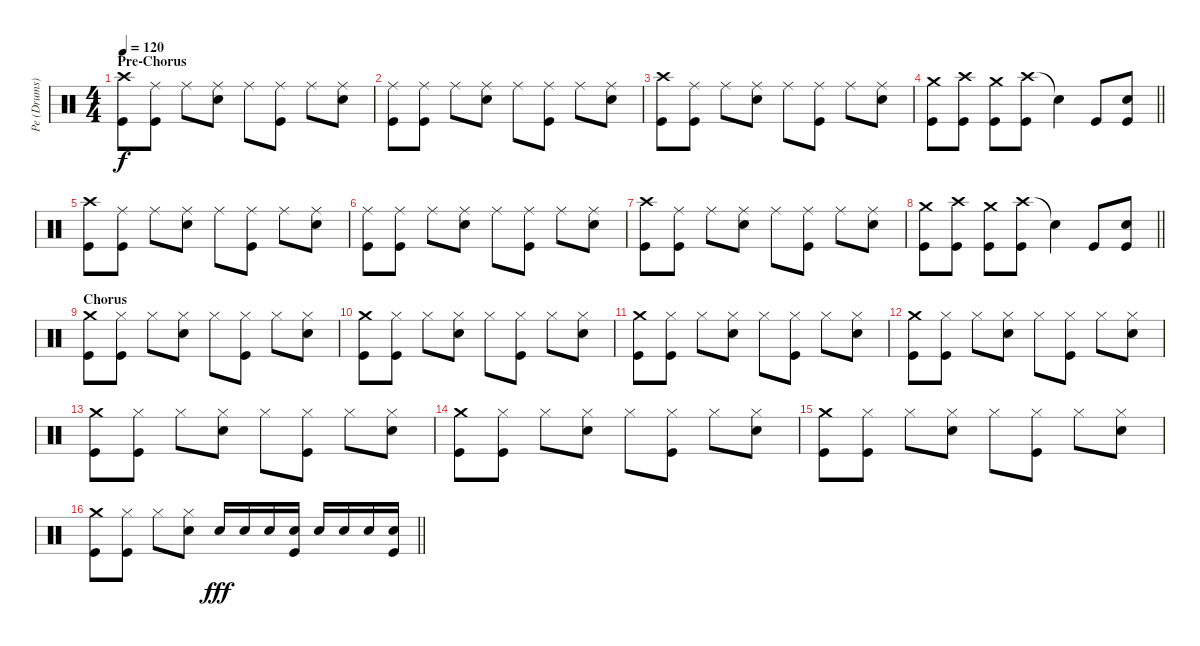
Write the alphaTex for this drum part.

\track ("Pe (Drums)" "Pe (Drums)") {instrument percussion}
\staff {score}
\articulation defaults
\ts (4 4)
\section ("" "Pre-Chorus")
\tempo 120
\clef neutral
\ks c
("Crash high (hit)" "Kick (hit)").8{dy f} ("Ride (middle)" "Kick (hit)").8 "Ride (middle)".8 ("Ride (middle)" "Electric Snare (hit)").8 "Ride (middle)".8 ("Ride (middle)" "Kick (hit)").8 "Ride (middle)".8 ("Ride (middle)" "Electric Snare (hit)").8 |
("Ride (middle)" "Kick (hit)").8 ("Ride (middle)" "Kick (hit)").8 "Ride (middle)".8 ("Ride (middle)" "Electric Snare (hit)").8 "Ride (middle)".8 ("Ride (middle)" "Kick (hit)").8 "Ride (middle)".8 ("Ride (middle)" "Electric Snare (hit)").8 |
("Crash high (hit)" "Kick (hit)").8 ("Ride (middle)" "Kick (hit)").8 "Ride (middle)".8 ("Ride (middle)" "Electric Snare (hit)").8 "Ride (middle)".8 ("Ride (middle)" "Kick (hit)").8 "Ride (middle)".8 ("Ride (middle)" "Electric Snare (hit)").8 |
\barLineRight lightlight
("Crash medium (hit)" "Kick (hit)").8 ("Crash high (hit)" "Kick (hit)").8 ("Crash medium (hit)" "Kick (hit)").8 ("Crash high (hit)" "Kick (hit)").8 "Snare (hit)"{t}.4 "Kick (hit)".8 ("Electric Snare (hit)" "Kick (hit)").8 |
("Crash high (hit)" "Kick (hit)").8 ("Ride (middle)" "Kick (hit)").8 "Ride (middle)".8 ("Ride (middle)" "Electric Snare (hit)").8 "Ride (middle)".8 ("Ride (middle)" "Kick (hit)").8 "Ride (middle)".8 ("Ride (middle)" "Electric Snare (hit)").8 |
("Ride (middle)" "Kick (hit)").8 ("Ride (middle)" "Kick (hit)").8 "Ride (middle)".8 ("Ride (middle)" "Electric Snare (hit)").8 "Ride (middle)".8 ("Ride (middle)" "Kick (hit)").8 "Ride (middle)".8 ("Ride (middle)" "Electric Snare (hit)").8 |
("Crash high (hit)" "Kick (hit)").8 ("Ride (middle)" "Kick (hit)").8 "Ride (middle)".8 ("Ride (middle)" "Electric Snare (hit)").8 "Ride (middle)".8 ("Ride (middle)" "Kick (hit)").8 "Ride (middle)".8 ("Ride (middle)" "Electric Snare (hit)").8 |
\barLineRight lightlight
("Crash medium (hit)" "Kick (hit)").8 ("Crash high (hit)" "Kick (hit)").8 ("Crash medium (hit)" "Kick (hit)").8 ("Crash high (hit)" "Kick (hit)").8 "Snare (hit)"{t}.4 "Kick (hit)".8 ("Electric Snare (hit)" "Kick (hit)").8 |
\section ("" "Chorus")
("Crash medium (hit)" "Kick (hit)").8 ("Hi-Hat (closed)" "Kick (hit)").8 "Hi-Hat (closed)".8 ("Hi-Hat (closed)" "Electric Snare (hit)").8 "Hi-Hat (closed)".8 ("Hi-Hat (closed)" "Kick (hit)").8 "Hi-Hat (closed)".8 ("Hi-Hat (closed)" "Electric Snare (hit)").8 |
("Crash medium (hit)" "Kick (hit)").8 ("Hi-Hat (closed)" "Kick (hit)").8 "Hi-Hat (closed)".8 ("Hi-Hat (closed)" "Electric Snare (hit)").8 "Hi-Hat (closed)".8 ("Hi-Hat (closed)" "Kick (hit)").8 "Hi-Hat (closed)".8 ("Hi-Hat (closed)" "Electric Snare (hit)").8 |
("Crash medium (hit)" "Kick (hit)").8 ("Hi-Hat (closed)" "Kick (hit)").8 "Hi-Hat (closed)".8 ("Hi-Hat (closed)" "Electric Snare (hit)").8 "Hi-Hat (closed)".8 ("Hi-Hat (closed)" "Kick (hit)").8 "Hi-Hat (closed)".8 ("Hi-Hat (closed)" "Electric Snare (hit)").8 |
("Crash medium (hit)" "Kick (hit)").8 ("Hi-Hat (closed)" "Kick (hit)").8 "Hi-Hat (closed)".8 ("Hi-Hat (closed)" "Electric Snare (hit)").8 "Hi-Hat (closed)".8 ("Hi-Hat (closed)" "Kick (hit)").8 "Hi-Hat (closed)".8 ("Hi-Hat (closed)" "Electric Snare (hit)").8 |
("Crash medium (hit)" "Kick (hit)").8 ("Hi-Hat (closed)" "Kick (hit)").8 "Hi-Hat (closed)".8 ("Hi-Hat (closed)" "Electric Snare (hit)").8 "Hi-Hat (closed)".8 ("Hi-Hat (closed)" "Kick (hit)").8 "Hi-Hat (closed)".8 ("Hi-Hat (closed)" "Electric Snare (hit)").8 |
("Crash medium (hit)" "Kick (hit)").8 ("Hi-Hat (closed)" "Kick (hit)").8 "Hi-Hat (closed)".8 ("Hi-Hat (closed)" "Electric Snare (hit)").8 "Hi-Hat (closed)".8 ("Hi-Hat (closed)" "Kick (hit)").8 "Hi-Hat (closed)".8 ("Hi-Hat (closed)" "Electric Snare (hit)").8 |
("Crash medium (hit)" "Kick (hit)").8 ("Hi-Hat (closed)" "Kick (hit)").8 "Hi-Hat (closed)".8 ("Hi-Hat (closed)" "Electric Snare (hit)").8 "Hi-Hat (closed)".8 ("Hi-Hat (closed)" "Kick (hit)").8 "Hi-Hat (closed)".8 ("Hi-Hat (closed)" "Electric Snare (hit)").8 |
\barLineRight lightlight
("Crash medium (hit)" "Kick (hit)").8 ("Hi-Hat (closed)" "Kick (hit)").8 "Hi-Hat (closed)".8 ("Hi-Hat (closed)" "Electric Snare (hit)").8 "Electric Snare (hit)".16{dy fff} "Electric Snare (hit)".16 "Electric Snare (hit)".16 ("Electric Snare (hit)" "Kick (hit)").16 "Electric Snare (hit)".16 "Electric Snare (hit)".16 "Electric Snare (hit)".16 ("Electric Snare (hit)" "Kick (hit)").16
